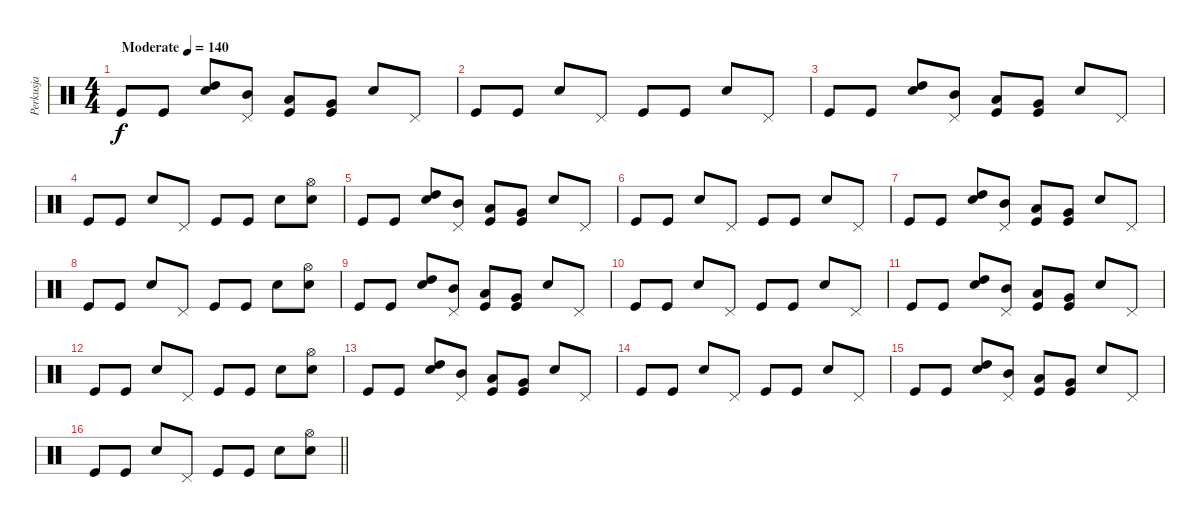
\track ("Perkusja" "Perkusja") {instrument percussion}
\staff {score}
\articulation defaults
\ts (4 4)
\tempo (140 "Moderate")
\clef neutral
\ks c "Kick (hit)".8{dy f} "Kick (hit)".8
("Electric Snare (hit)" "High Tom (hit)").8 ("Mid Tom (hit)" "Pedal Hi-Hat (hit)").8 ("Kick (hit)" "Low Tom (hit)").8 ("Kick (hit)" "Very Low Tom (hit)").8 "Electric Snare (hit)".8 "Pedal Hi-Hat (hit)".8 |
"Kick (hit)".8 "Kick (hit)".8 "Electric Snare (hit)".8 "Pedal Hi-Hat (hit)".8 "Kick (hit)".8 "Kick (hit)".8 "Electric Snare (hit)".8 "Pedal Hi-Hat (hit)".8 |
"Kick (hit)".8 "Kick (hit)".8 ("Electric Snare (hit)" "High Tom (hit)").8 ("Mid Tom (hit)" "Pedal Hi-Hat (hit)").8 ("Kick (hit)" "Low Tom (hit)").8 ("Kick (hit)" "Very Low Tom (hit)").8 "Electric Snare (hit)".8 "Pedal Hi-Hat (hit)".8 |
"Kick (hit)".8 "Kick (hit)".8 "Electric Snare (hit)".8 "Pedal Hi-Hat (hit)".8 "Kick (hit)".8 "Kick (hit)".8 "Electric Snare (hit)".8 ("Hi-Hat (open)" "Electric Snare (hit)").8 |
"Kick (hit)".8 "Kick (hit)".8 ("Electric Snare (hit)" "High Tom (hit)").8 ("Mid Tom (hit)" "Pedal Hi-Hat (hit)").8 ("Kick (hit)" "Low Tom (hit)").8 ("Kick (hit)" "Very Low Tom (hit)").8 "Electric Snare (hit)".8 "Pedal Hi-Hat (hit)".8 |
"Kick (hit)".8 "Kick (hit)".8 "Electric Snare (hit)".8 "Pedal Hi-Hat (hit)".8 "Kick (hit)".8 "Kick (hit)".8 "Electric Snare (hit)".8 "Pedal Hi-Hat (hit)".8 |
"Kick (hit)".8 "Kick (hit)".8 ("Electric Snare (hit)" "High Tom (hit)").8 ("Mid Tom (hit)" "Pedal Hi-Hat (hit)").8 ("Kick (hit)" "Low Tom (hit)").8 ("Kick (hit)" "Very Low Tom (hit)").8 "Electric Snare (hit)".8 "Pedal Hi-Hat (hit)".8 |
"Kick (hit)".8 "Kick (hit)".8 "Electric Snare (hit)".8 "Pedal Hi-Hat (hit)".8 "Kick (hit)".8 "Kick (hit)".8 "Electric Snare (hit)".8 ("Hi-Hat (open)" "Electric Snare (hit)").8 |
"Kick (hit)".8 "Kick (hit)".8 ("Electric Snare (hit)" "High Tom (hit)").8 ("Mid Tom (hit)" "Pedal Hi-Hat (hit)").8 ("Kick (hit)" "Low Tom (hit)").8 ("Kick (hit)" "Very Low Tom (hit)").8 "Electric Snare (hit)".8 "Pedal Hi-Hat (hit)".8 |
"Kick (hit)".8 "Kick (hit)".8 "Electric Snare (hit)".8 "Pedal Hi-Hat (hit)".8 "Kick (hit)".8 "Kick (hit)".8 "Electric Snare (hit)".8 "Pedal Hi-Hat (hit)".8 |
"Kick (hit)".8 "Kick (hit)".8 ("Electric Snare (hit)" "High Tom (hit)").8 ("Mid Tom (hit)" "Pedal Hi-Hat (hit)").8 ("Kick (hit)" "Low Tom (hit)").8 ("Kick (hit)" "Very Low Tom (hit)").8 "Electric Snare (hit)".8 "Pedal Hi-Hat (hit)".8 |
"Kick (hit)".8 "Kick (hit)".8 "Electric Snare (hit)".8 "Pedal Hi-Hat (hit)".8 "Kick (hit)".8 "Kick (hit)".8 "Electric Snare (hit)".8 ("Hi-Hat (open)" "Electric Snare (hit)").8 |
"Kick (hit)".8 "Kick (hit)".8 ("Electric Snare (hit)" "High Tom (hit)").8 ("Mid Tom (hit)" "Pedal Hi-Hat (hit)").8 ("Kick (hit)" "Low Tom (hit)").8 ("Kick (hit)" "Very Low Tom (hit)").8 "Electric Snare (hit)".8 "Pedal Hi-Hat (hit)".8 |
"Kick (hit)".8 "Kick (hit)".8 "Electric Snare (hit)".8 "Pedal Hi-Hat (hit)".8 "Kick (hit)".8 "Kick (hit)".8 "Electric Snare (hit)".8 "Pedal Hi-Hat (hit)".8 |
"Kick (hit)".8 "Kick (hit)".8 ("Electric Snare (hit)" "High Tom (hit)").8 ("Mid Tom (hit)" "Pedal Hi-Hat (hit)").8 ("Kick (hit)" "Low Tom (hit)").8 ("Kick (hit)" "Very Low Tom (hit)").8 "Electric Snare (hit)".8 "Pedal Hi-Hat (hit)".8 |
\barLineRight lightlight "Kick (hit)".8 "Kick (hit)".8 "Electric Snare (hit)".8 "Pedal Hi-Hat (hit)".8 "Kick (hit)".8 "Kick (hit)".8 "Electric Snare (hit)".8
("Hi-Hat (open)" "Electric Snare (hit)").8
